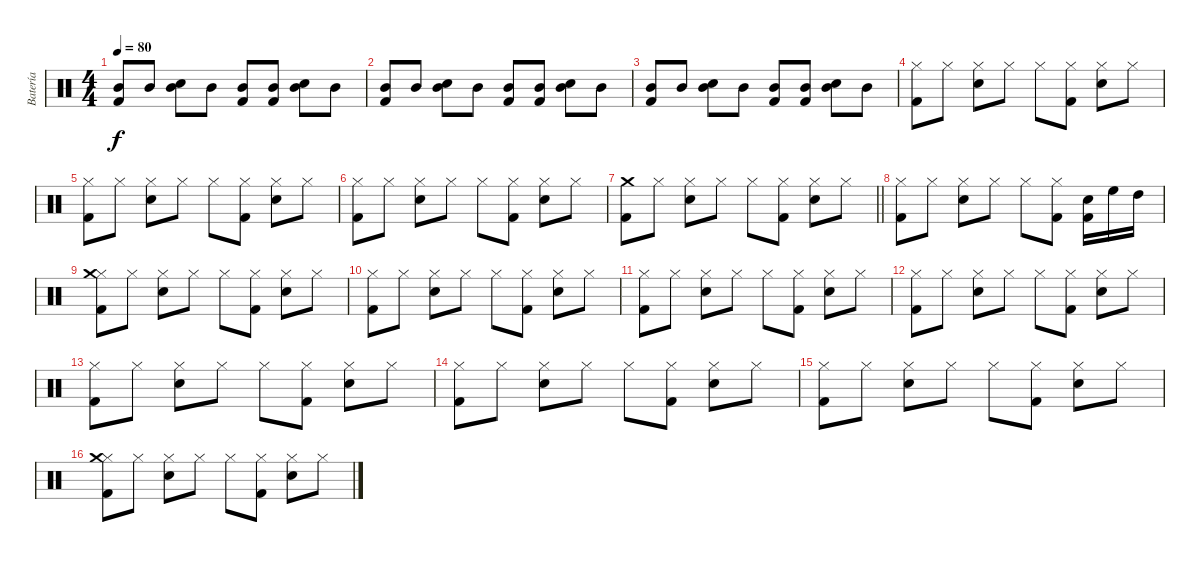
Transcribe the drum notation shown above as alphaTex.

\track ("Batería" "Batería") {instrument percussion}
\staff {score}
\articulation defaults
\ts (4 4)
\tempo 80
\clef neutral
\ks c
("Mid Tom (hit)" "Kick (hit) 2").8{dy f} "Mid Tom (hit)".8 ("Mid Tom (hit)" "Snare (hit) 2").8 "Mid Tom (hit)".8 ("Mid Tom (hit)" "Kick (hit) 2").8 ("Mid Tom (hit)" "Kick (hit) 2").8 ("Mid Tom (hit)" "Snare (hit) 2").8 "Mid Tom (hit)".8 |
("Mid Tom (hit)" "Kick (hit) 2").8 "Mid Tom (hit)".8 ("Mid Tom (hit)" "Snare (hit) 2").8 "Mid Tom (hit)".8 ("Mid Tom (hit)" "Kick (hit) 2").8 ("Mid Tom (hit)" "Kick (hit) 2").8 ("Mid Tom (hit)" "Snare (hit) 2").8 "Mid Tom (hit)".8 |
("Mid Tom (hit)" "Kick (hit) 2").8 "Mid Tom (hit)".8 ("Mid Tom (hit)" "Snare (hit) 2").8 "Mid Tom (hit)".8 ("Mid Tom (hit)" "Kick (hit) 2").8 ("Mid Tom (hit)" "Kick (hit) 2").8 ("Mid Tom (hit)" "Snare (hit) 2").8 "Mid Tom (hit)".8 |
("Hi-Hat (closed)" "Kick (hit) 2").8 "Hi-Hat (closed)".8 ("Hi-Hat (closed)" "Snare (hit) 2").8 "Hi-Hat (closed)".8 "Hi-Hat (closed)".8 ("Hi-Hat (closed)" "Kick (hit) 2").8 ("Hi-Hat (closed)" "Snare (hit) 2").8 "Hi-Hat (closed)".8 |
("Hi-Hat (closed)" "Kick (hit) 2").8 "Hi-Hat (closed)".8 ("Hi-Hat (closed)" "Snare (hit) 2").8 "Hi-Hat (closed)".8 "Hi-Hat (closed)".8 ("Hi-Hat (closed)" "Kick (hit) 2").8 ("Hi-Hat (closed)" "Snare (hit) 2").8 "Hi-Hat (closed)".8 |
("Hi-Hat (closed)" "Kick (hit) 2").8 "Hi-Hat (closed)".8 ("Hi-Hat (closed)" "Snare (hit) 2").8 "Hi-Hat (closed)".8 "Hi-Hat (closed)".8 ("Hi-Hat (closed)" "Kick (hit) 2").8 ("Hi-Hat (closed)" "Snare (hit) 2").8 "Hi-Hat (closed)".8 |
\barLineRight lightlight
("Kick (hit) 2" "Crash medium (hit)").8 "Hi-Hat (closed)".8 ("Hi-Hat (closed)" "Snare (hit) 2").8 "Hi-Hat (closed)".8 "Hi-Hat (closed)".8 ("Hi-Hat (closed)" "Kick (hit) 2").8 ("Hi-Hat (closed)" "Snare (hit) 2").8 "Hi-Hat (closed)".8 |
("Hi-Hat (closed)" "Kick (hit) 2").8 "Hi-Hat (closed)".8 ("Hi-Hat (closed)" "Snare (hit) 2").8 "Hi-Hat (closed)".8 "Hi-Hat (closed)".8 ("Hi-Hat (closed)" "Kick (hit) 2").8 ("Snare (hit) 2" "Kick (hit) 2").16 "High Floor Tom (hit)".16 "High Tom (hit)".16 |
("Hi-Hat (closed)" "Kick (hit) 2" "Crash medium (hit)").8 "Hi-Hat (closed)".8 ("Hi-Hat (closed)" "Snare (hit) 2").8 "Hi-Hat (closed)".8 "Hi-Hat (closed)".8 ("Hi-Hat (closed)" "Kick (hit) 2").8 ("Hi-Hat (closed)" "Snare (hit) 2").8 "Hi-Hat (closed)".8 |
("Hi-Hat (closed)" "Kick (hit) 2").8 "Hi-Hat (closed)".8 ("Hi-Hat (closed)" "Snare (hit) 2").8 "Hi-Hat (closed)".8 "Hi-Hat (closed)".8 ("Hi-Hat (closed)" "Kick (hit) 2").8 ("Hi-Hat (closed)" "Snare (hit) 2").8 "Hi-Hat (closed)".8 |
("Hi-Hat (closed)" "Kick (hit) 2").8 "Hi-Hat (closed)".8 ("Hi-Hat (closed)" "Snare (hit) 2").8 "Hi-Hat (closed)".8 "Hi-Hat (closed)".8 ("Hi-Hat (closed)" "Kick (hit) 2").8 ("Hi-Hat (closed)" "Snare (hit) 2").8 "Hi-Hat (closed)".8 |
("Hi-Hat (closed)" "Kick (hit) 2").8 "Hi-Hat (closed)".8 ("Hi-Hat (closed)" "Snare (hit) 2").8 "Hi-Hat (closed)".8 "Hi-Hat (closed)".8 ("Hi-Hat (closed)" "Kick (hit) 2").8 ("Hi-Hat (closed)" "Snare (hit) 2").8 "Hi-Hat (closed)".8 |
("Hi-Hat (closed)" "Kick (hit) 2").8 "Hi-Hat (closed)".8 ("Hi-Hat (closed)" "Snare (hit) 2").8 "Hi-Hat (closed)".8 "Hi-Hat (closed)".8 ("Hi-Hat (closed)" "Kick (hit) 2").8 ("Hi-Hat (closed)" "Snare (hit) 2").8 "Hi-Hat (closed)".8 |
("Hi-Hat (closed)" "Kick (hit) 2").8 "Hi-Hat (closed)".8 ("Hi-Hat (closed)" "Snare (hit) 2").8 "Hi-Hat (closed)".8 "Hi-Hat (closed)".8 ("Hi-Hat (closed)" "Kick (hit) 2").8 ("Hi-Hat (closed)" "Snare (hit) 2").8 "Hi-Hat (closed)".8 |
("Hi-Hat (closed)" "Kick (hit) 2").8 "Hi-Hat (closed)".8 ("Hi-Hat (closed)" "Snare (hit) 2").8 "Hi-Hat (closed)".8 "Hi-Hat (closed)".8 ("Hi-Hat (closed)" "Kick (hit) 2").8 ("Hi-Hat (closed)" "Snare (hit) 2").8 "Hi-Hat (closed)".8 |
("Hi-Hat (closed)" "Kick (hit) 2" "Crash medium (hit)").8 "Hi-Hat (closed)".8 ("Hi-Hat (closed)" "Snare (hit) 2").8 "Hi-Hat (closed)".8 "Hi-Hat (closed)".8 ("Hi-Hat (closed)" "Kick (hit) 2").8 ("Hi-Hat (closed)" "Snare (hit) 2").8 "Hi-Hat (closed)".8
